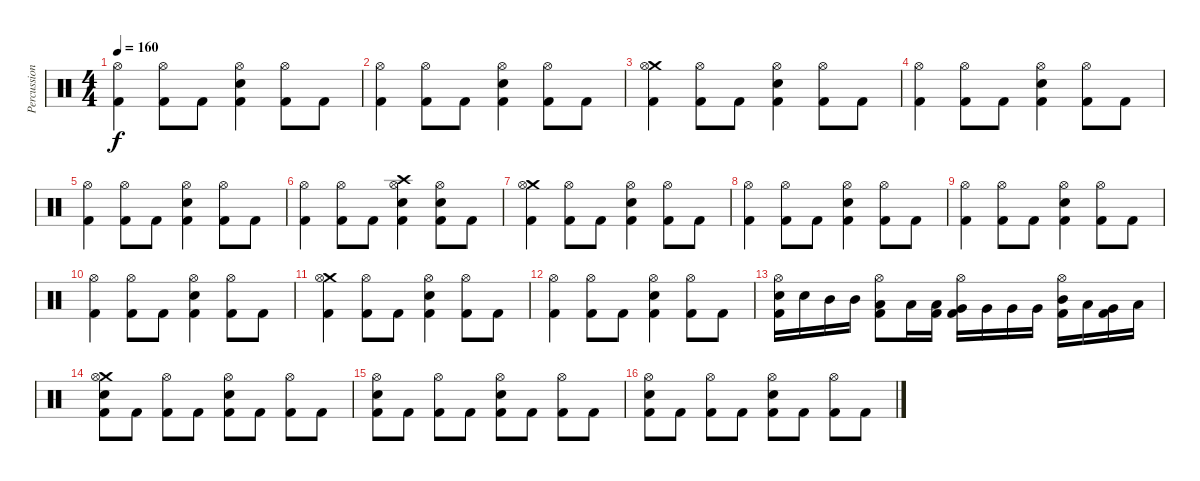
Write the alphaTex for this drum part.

\track ("Percussion" "Percussion") {instrument percussion}
\staff {score}
\articulation defaults
\ts (4 4)
\tempo 160
\clef neutral
\ks c
("Hi-Hat (open)" "Kick (hit) 2").4{dy f} ("Hi-Hat (open)" "Kick (hit) 2").8 "Kick (hit) 2".8 ("Hi-Hat (open)" "Electric Snare (hit)" "Kick (hit) 2").4 ("Hi-Hat (open)" "Kick (hit) 2").8 "Kick (hit) 2".8 |
("Hi-Hat (open)" "Kick (hit) 2").4 ("Hi-Hat (open)" "Kick (hit) 2").8 "Kick (hit) 2".8 ("Hi-Hat (open)" "Electric Snare (hit)" "Kick (hit) 2").4 ("Hi-Hat (open)" "Kick (hit) 2").8 "Kick (hit) 2".8 |
("Crash medium (hit)" "Hi-Hat (open)" "Kick (hit) 2").4 ("Hi-Hat (open)" "Kick (hit) 2").8 "Kick (hit) 2".8 ("Hi-Hat (open)" "Electric Snare (hit)" "Kick (hit) 2").4 ("Hi-Hat (open)" "Kick (hit) 2").8 "Kick (hit) 2".8 |
("Hi-Hat (open)" "Kick (hit) 2").4 ("Hi-Hat (open)" "Kick (hit) 2").8 "Kick (hit) 2".8 ("Hi-Hat (open)" "Electric Snare (hit)" "Kick (hit) 2").4 ("Hi-Hat (open)" "Kick (hit) 2").8 "Kick (hit) 2".8 |
("Hi-Hat (open)" "Kick (hit) 2").4 ("Hi-Hat (open)" "Kick (hit) 2").8 "Kick (hit) 2".8 ("Hi-Hat (open)" "Electric Snare (hit)" "Kick (hit) 2").4 ("Hi-Hat (open)" "Kick (hit) 2").8 "Kick (hit) 2".8 |
("Hi-Hat (open)" "Kick (hit) 2").4 ("Hi-Hat (open)" "Kick (hit) 2").8 "Kick (hit) 2".8 ("Crash high (hit)" "Hi-Hat (open)" "Electric Snare (hit)" "Kick (hit) 2").4 ("Hi-Hat (open)" "Electric Snare (hit)" "Kick (hit) 2").8 "Kick (hit) 2".8 |
("Crash medium (hit)" "Hi-Hat (open)" "Kick (hit) 2").4 ("Hi-Hat (open)" "Kick (hit) 2").8 "Kick (hit) 2".8 ("Hi-Hat (open)" "Electric Snare (hit)" "Kick (hit) 2").4 ("Hi-Hat (open)" "Kick (hit) 2").8 "Kick (hit) 2".8 |
("Hi-Hat (open)" "Kick (hit) 2").4 ("Hi-Hat (open)" "Kick (hit) 2").8 "Kick (hit) 2".8 ("Hi-Hat (open)" "Electric Snare (hit)" "Kick (hit) 2").4 ("Hi-Hat (open)" "Kick (hit) 2").8 "Kick (hit) 2".8 |
("Hi-Hat (open)" "Kick (hit) 2").4 ("Hi-Hat (open)" "Kick (hit) 2").8 "Kick (hit) 2".8 ("Hi-Hat (open)" "Electric Snare (hit)" "Kick (hit) 2").4 ("Hi-Hat (open)" "Kick (hit) 2").8 "Kick (hit) 2".8 |
("Hi-Hat (open)" "Kick (hit) 2").4 ("Hi-Hat (open)" "Kick (hit) 2").8 "Kick (hit) 2".8 ("Hi-Hat (open)" "Electric Snare (hit)" "Kick (hit) 2").4 ("Hi-Hat (open)" "Kick (hit) 2").8 "Kick (hit) 2".8 |
("Crash medium (hit)" "Hi-Hat (open)" "Kick (hit) 2").4 ("Hi-Hat (open)" "Kick (hit) 2").8 "Kick (hit) 2".8 ("Hi-Hat (open)" "Electric Snare (hit)" "Kick (hit) 2").4 ("Hi-Hat (open)" "Kick (hit) 2").8 "Kick (hit) 2".8 |
("Hi-Hat (open)" "Kick (hit) 2").4 ("Hi-Hat (open)" "Kick (hit) 2").8 "Kick (hit) 2".8 ("Hi-Hat (open)" "Electric Snare (hit)" "Kick (hit) 2").4 ("Hi-Hat (open)" "Kick (hit) 2").8 "Kick (hit) 2".8 |
("Hi-Hat (open)" "Electric Snare (hit)" "Kick (hit) 2").16 "Electric Snare (hit)".16 "Mid Tom (hit)".16 "Mid Tom (hit)".16 ("Hi-Hat (open)" "Low Tom (hit)" "Kick (hit) 2").8 "Low Tom (hit)".16 ("Low Tom (hit)" "Kick (hit) 2").16 ("Hi-Hat (open)" "Very Low Tom (hit)" "Kick (hit) 2").16 "Very Low Tom (hit)".16 "Very Low Tom (hit)".16 "Very Low Tom (hit)".16 ("Hi-Hat (open)" "Mid Tom (hit)" "Kick (hit) 2").16 "Low Tom (hit)".16 ("Very Low Tom (hit)" "Kick (hit) 2").16 "Low Floor Tom (hit)".16 |
("Crash medium (hit)" "Hi-Hat (open)" "Electric Snare (hit)" "Kick (hit) 2").8 "Kick (hit) 2".8 ("Hi-Hat (open)" "Kick (hit) 2").8 "Kick (hit) 2".8 ("Hi-Hat (open)" "Electric Snare (hit)" "Kick (hit) 2").8 "Kick (hit) 2".8 ("Hi-Hat (open)" "Kick (hit) 2").8 "Kick (hit) 2".8 |
("Hi-Hat (open)" "Electric Snare (hit)" "Kick (hit) 2").8 "Kick (hit) 2".8 ("Hi-Hat (open)" "Kick (hit) 2").8 "Kick (hit) 2".8 ("Hi-Hat (open)" "Electric Snare (hit)" "Kick (hit) 2").8 "Kick (hit) 2".8 ("Hi-Hat (open)" "Kick (hit) 2").8 "Kick (hit) 2".8 |
("Hi-Hat (open)" "Electric Snare (hit)" "Kick (hit) 2").8 "Kick (hit) 2".8 ("Hi-Hat (open)" "Kick (hit) 2").8 "Kick (hit) 2".8 ("Hi-Hat (open)" "Electric Snare (hit)" "Kick (hit) 2").8 "Kick (hit) 2".8 ("Hi-Hat (open)" "Kick (hit) 2").8 "Kick (hit) 2".8
